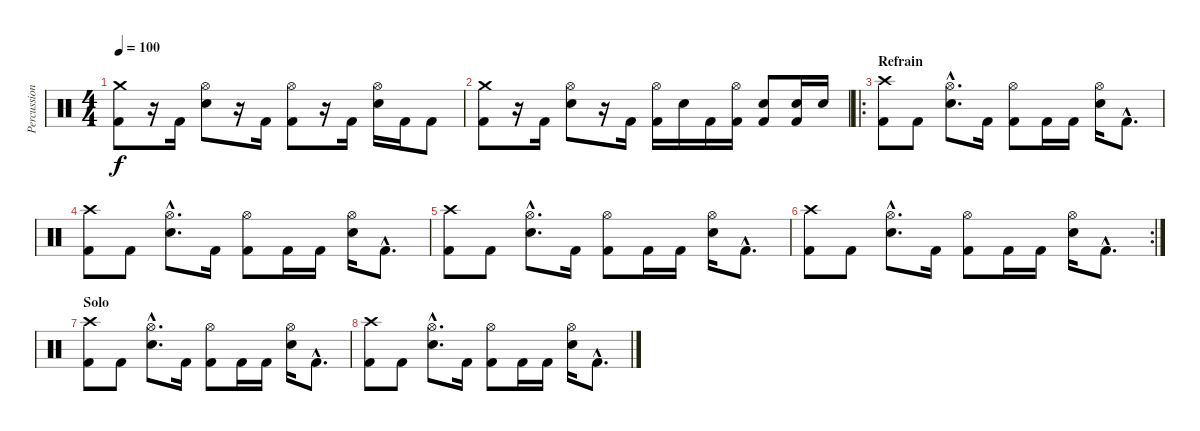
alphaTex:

\track ("Percussions" "Percussion") {instrument percussion}
\staff {score}
\articulation defaults
\ts (4 4)
\tempo 100
\clef neutral
\ks c
("Crash medium (hit)" "Kick (hit) 2").8{dy f} r.16 "Kick (hit) 2".16 ("Hi-Hat (open)" "Electric Snare (hit)").8 r.16 "Kick (hit) 2".16 ("Hi-Hat (open)" "Kick (hit) 2").8 r.16 "Kick (hit) 2".16 ("Hi-Hat (open)" "Electric Snare (hit)").16 "Kick (hit) 2".16 "Kick (hit) 2".8 |
("Crash medium (hit)" "Kick (hit) 2").8 r.16 "Kick (hit) 2".16 ("Hi-Hat (open)" "Electric Snare (hit)").8 r.16 "Kick (hit) 2".16 ("Hi-Hat (open)" "Kick (hit) 2").16 "Electric Snare (hit)".16 "Kick (hit) 2".16 ("Hi-Hat (open)" "Kick (hit) 2").16 ("Electric Snare (hit)" "Kick (hit) 2").8 ("Electric Snare (hit)" "Kick (hit) 2").16 "Electric Snare (hit)".16 |
\ro
\section ("" "Refrain")
("Crash high (hit)" "Kick (hit) 2").8 "Kick (hit) 2".8 ("Hi-Hat (open)"{hac} "Electric Snare (hit)"{hac}).8{d} "Kick (hit) 2".16 ("Hi-Hat (open)" "Kick (hit) 2").8 "Kick (hit) 2".16 "Kick (hit) 2".16 ("Hi-Hat (open)" "Electric Snare (hit)").16 "Kick (hit) 2"{hac}.8{d} |
("Crash high (hit)" "Kick (hit) 2").8 "Kick (hit) 2".8 ("Hi-Hat (open)"{hac} "Electric Snare (hit)"{hac}).8{d} "Kick (hit) 2".16 ("Hi-Hat (open)" "Kick (hit) 2").8 "Kick (hit) 2".16 "Kick (hit) 2".16 ("Hi-Hat (open)" "Electric Snare (hit)").16 "Kick (hit) 2"{hac}.8{d} |
("Crash high (hit)" "Kick (hit) 2").8 "Kick (hit) 2".8 ("Hi-Hat (open)"{hac} "Electric Snare (hit)"{hac}).8{d} "Kick (hit) 2".16 ("Hi-Hat (open)" "Kick (hit) 2").8 "Kick (hit) 2".16 "Kick (hit) 2".16 ("Hi-Hat (open)" "Electric Snare (hit)").16 "Kick (hit) 2"{hac}.8{d} |
\rc 2
("Crash high (hit)" "Kick (hit) 2").8 "Kick (hit) 2".8 ("Hi-Hat (open)"{hac} "Electric Snare (hit)"{hac}).8{d} "Kick (hit) 2".16 ("Hi-Hat (open)" "Kick (hit) 2").8 "Kick (hit) 2".16 "Kick (hit) 2".16 ("Hi-Hat (open)" "Electric Snare (hit)").16 "Kick (hit) 2"{hac}.8{d} |
\section ("" "Solo")
("Crash high (hit)" "Kick (hit) 2").8 "Kick (hit) 2".8 ("Hi-Hat (open)"{hac} "Electric Snare (hit)"{hac}).8{d} "Kick (hit) 2".16 ("Hi-Hat (open)" "Kick (hit) 2").8 "Kick (hit) 2".16 "Kick (hit) 2".16 ("Hi-Hat (open)" "Electric Snare (hit)").16 "Kick (hit) 2"{hac}.8{d} |
("Crash high (hit)" "Kick (hit) 2").8 "Kick (hit) 2".8 ("Hi-Hat (open)"{hac} "Electric Snare (hit)"{hac}).8{d} "Kick (hit) 2".16 ("Hi-Hat (open)" "Kick (hit) 2").8 "Kick (hit) 2".16 "Kick (hit) 2".16 ("Hi-Hat (open)" "Electric Snare (hit)").16 "Kick (hit) 2"{hac}.8{d}
